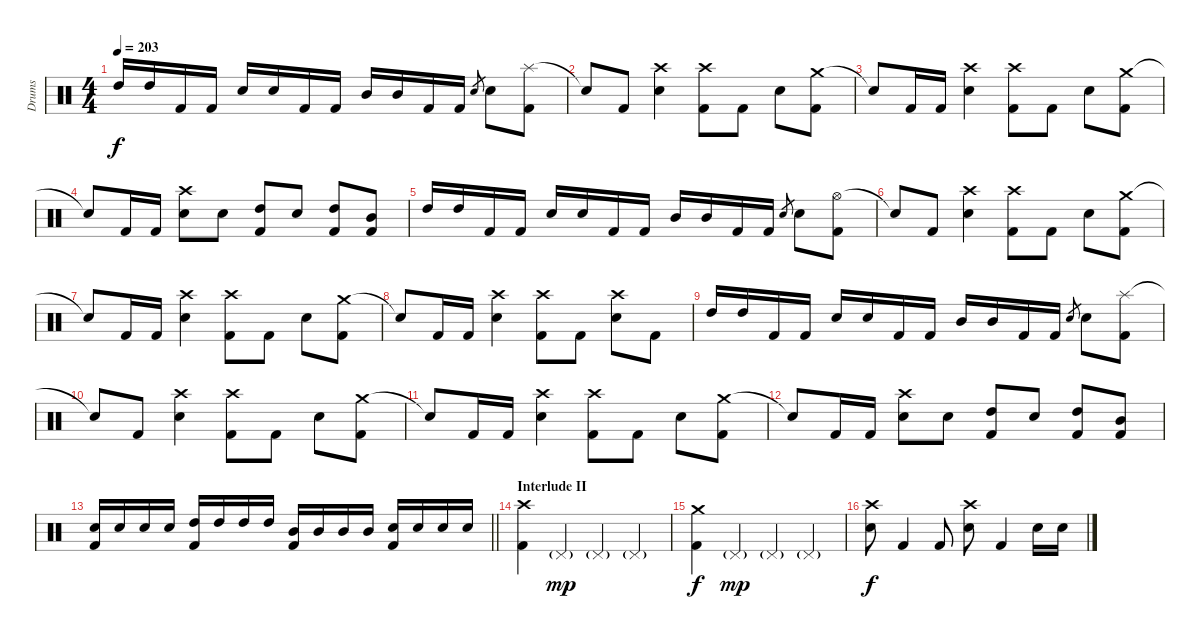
\track ("Drums" "Drums") {instrument percussion}
\staff {score}
\articulation defaults
\ts (4 4)
\tempo 203
\clef neutral
\ks c "High Tom (hit)".16{dy f} "High Tom (hit)".16 "Kick (hit) 2".16 "Kick (hit) 2".16 "Electric Snare (hit)".16 "Electric Snare (hit)".16 "Kick (hit) 2".16 "Kick (hit) 2".16 "Mid Tom (hit)".16 "Mid Tom (hit)".16 "Kick (hit) 2".16 "Kick (hit) 2".16 "Electric Snare (hit)".8{gr} "Electric Snare (hit)".8
("Splash (hit)" "Kick (hit) 2").8 |
"Snare (hit)"{t}.8 "Kick (hit) 2".8 ("Crash high (hit)" "Electric Snare (hit)").4 ("Crash high (hit)" "Kick (hit) 2").8 "Kick (hit) 2".8 "Electric Snare (hit)".8 ("Crash medium (hit)" "Kick (hit) 2").8 |
"Snare (hit)"{t}.8 "Kick (hit) 2".16 "Kick (hit) 2".16 ("Crash high (hit)" "Electric Snare (hit)").4 ("Crash high (hit)" "Kick (hit) 2").8 "Kick (hit) 2".8 "Electric Snare (hit)".8 ("Crash medium (hit)" "Kick (hit) 2").8 |
"Snare (hit)"{t}.8 "Kick (hit) 2".16 "Kick (hit) 2".16 ("Crash high (hit)" "Electric Snare (hit)").8 "Electric Snare (hit)".8 ("High Tom (hit)" "Kick (hit) 2").8 "Electric Snare (hit)".8 ("High Tom (hit)" "Kick (hit) 2").8 ("Mid Tom (hit)" "Kick (hit) 2").8 |
"High Tom (hit)".16 "High Tom (hit)".16 "Kick (hit) 2".16 "Kick (hit) 2".16 "Electric Snare (hit)".16 "Electric Snare (hit)".16 "Kick (hit) 2".16 "Kick (hit) 2".16 "Mid Tom (hit)".16 "Mid Tom (hit)".16 "Kick (hit) 2".16 "Kick (hit) 2".16 "Electric Snare (hit)".8{gr} "Electric Snare (hit)".8 ("Hi-Hat (open)" "Kick (hit) 2").8 |
"Snare (hit)"{t}.8 "Kick (hit) 2".8 ("Crash high (hit)" "Electric Snare (hit)").4 ("Crash high (hit)" "Kick (hit) 2").8 "Kick (hit) 2".8 "Electric Snare (hit)".8 ("Crash medium (hit)" "Kick (hit) 2").8 |
"Snare (hit)"{t}.8 "Kick (hit) 2".16 "Kick (hit) 2".16 ("Crash high (hit)" "Electric Snare (hit)").4 ("Crash high (hit)" "Kick (hit) 2").8 "Kick (hit) 2".8 "Electric Snare (hit)".8 ("Crash medium (hit)" "Kick (hit) 2").8 |
"Snare (hit)"{t}.8 "Kick (hit) 2".16 "Kick (hit) 2".16 ("Crash high (hit)" "Electric Snare (hit)").4 ("Crash high (hit)" "Kick (hit) 2").8 "Kick (hit) 2".8 ("Crash high (hit)" "Electric Snare (hit)").8 "Kick (hit) 2".8 |
"High Tom (hit)".16 "High Tom (hit)".16 "Kick (hit) 2".16 "Kick (hit) 2".16 "Electric Snare (hit)".16 "Electric Snare (hit)".16 "Kick (hit) 2".16 "Kick (hit) 2".16 "Mid Tom (hit)".16 "Mid Tom (hit)".16 "Kick (hit) 2".16 "Kick (hit) 2".16 "Electric Snare (hit)".8{gr} "Electric Snare (hit)".8 ("Splash (hit)" "Kick (hit) 2").8 |
"Snare (hit)"{t}.8 "Kick (hit) 2".8 ("Crash high (hit)" "Electric Snare (hit)").4 ("Crash high (hit)" "Kick (hit) 2").8 "Kick (hit) 2".8 "Electric Snare (hit)".8 ("Crash medium (hit)" "Kick (hit) 2").8 |
"Snare (hit)"{t}.8 "Kick (hit) 2".16 "Kick (hit) 2".16 ("Crash high (hit)" "Electric Snare (hit)").4 ("Crash high (hit)" "Kick (hit) 2").8 "Kick (hit) 2".8 "Electric Snare (hit)".8 ("Crash medium (hit)" "Kick (hit) 2").8 |
"Snare (hit)"{t}.8 "Kick (hit) 2".16 "Kick (hit) 2".16 ("Crash high (hit)" "Electric Snare (hit)").8 "Electric Snare (hit)".8 ("High Tom (hit)" "Kick (hit) 2").8 "Electric Snare (hit)".8 ("High Tom (hit)" "Kick (hit) 2").8 ("Mid Tom (hit)" "Kick (hit) 2").8 |
\barLineRight lightlight
("Electric Snare (hit)" "Kick (hit) 2").16 "Electric Snare (hit)".16 "Electric Snare (hit)".16 "Electric Snare (hit)".16 ("High Tom (hit)" "Kick (hit) 2").16 "High Tom (hit)".16 "High Tom (hit)".16 "High Tom (hit)".16 ("Mid Tom (hit)" "Kick (hit) 2").16 "Mid Tom (hit)".16 "Mid Tom (hit)".16 "Mid Tom (hit)".16 ("Electric Snare (hit)" "Kick (hit) 2").16 "Electric Snare (hit)".16 "Electric Snare (hit)".16 "Electric Snare (hit)".16 |
\section ("" "Interlude II")
("Crash high (hit)" "Kick (hit) 2").4 "Pedal Hi-Hat (hit)"{g}.4{dy mp} "Pedal Hi-Hat (hit)"{g}.4 "Pedal Hi-Hat (hit)"{g}.4 |
("Crash medium (hit)" "Kick (hit) 2").4{dy f} "Pedal Hi-Hat (hit)"{g}.4{dy mp} "Pedal Hi-Hat (hit)"{g}.4 "Pedal Hi-Hat (hit)"{g}.4 |
("Crash high (hit)" "Electric Snare (hit)").8{dy f} "Kick (hit) 2".4 "Kick (hit) 2".8 ("Crash high (hit)" "Electric Snare (hit)").8 "Kick (hit) 2".4 "Electric Snare (hit)".16 "Electric Snare (hit)".16
